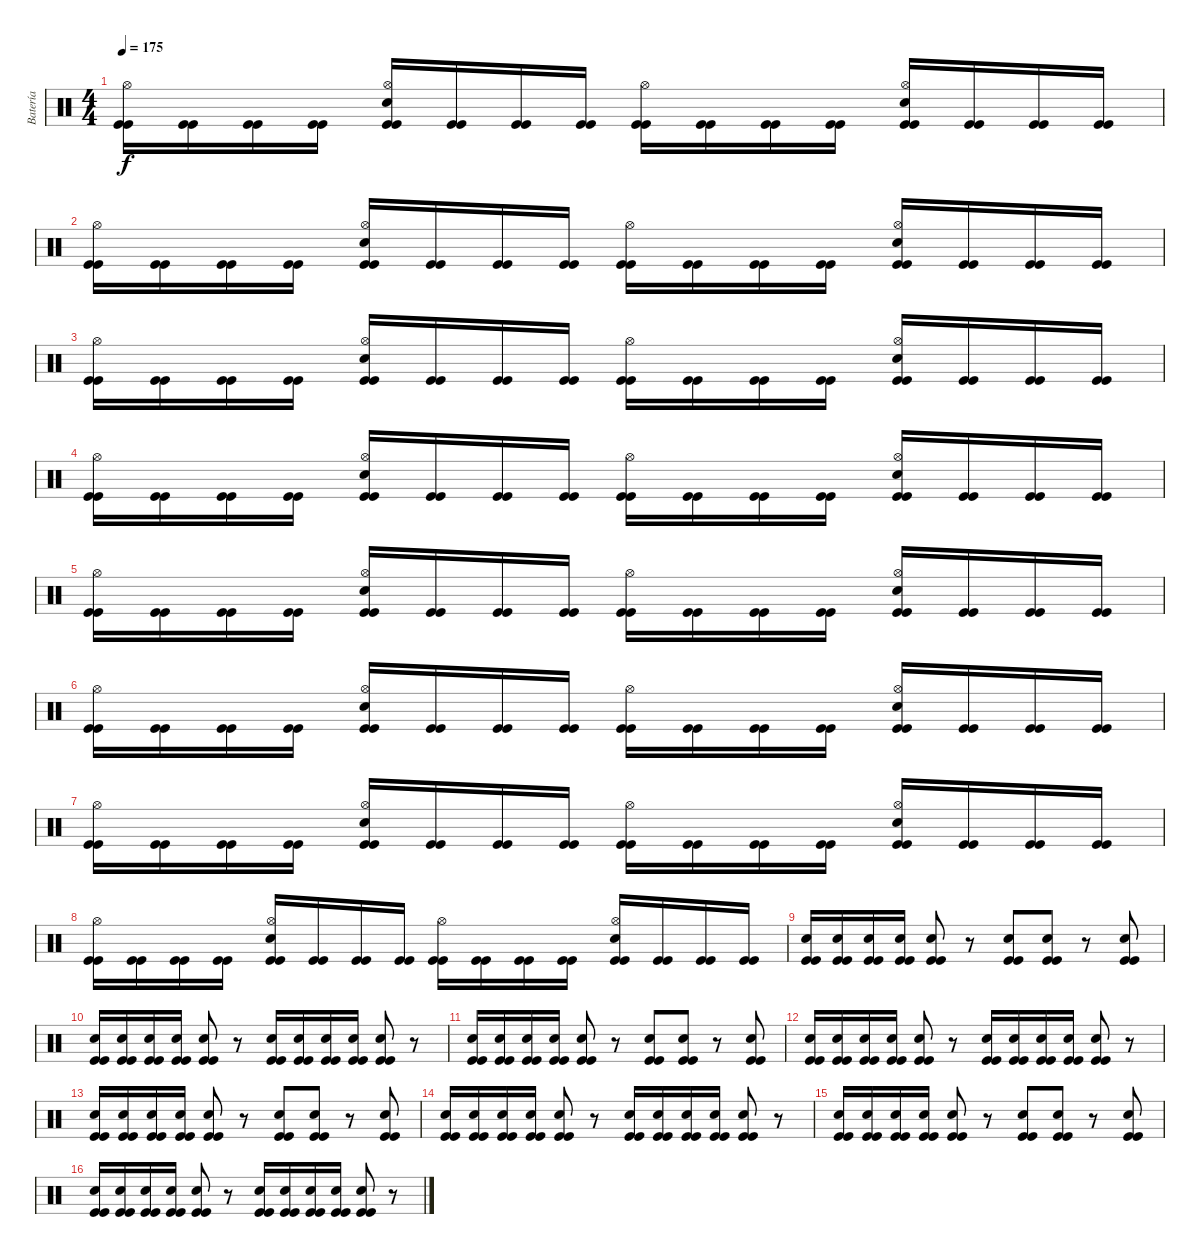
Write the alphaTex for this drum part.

\track ("Batería" "Batería") {instrument percussion}
\staff {score}
\articulation defaults
\ts (4 4)
\tempo 175
\clef neutral
\ks c
("Kick (hit)" "Kick (hit)" "Hi-Hat (open)").16{dy f} ("Kick (hit)" "Kick (hit)").16 ("Kick (hit)" "Kick (hit)").16 ("Kick (hit)" "Kick (hit)").16 ("Kick (hit)" "Kick (hit)" "Snare (hit) 2" "Hi-Hat (open)").16 ("Kick (hit)" "Kick (hit)").16 ("Kick (hit)" "Kick (hit)").16 ("Kick (hit)" "Kick (hit)").16 ("Kick (hit)" "Kick (hit)" "Hi-Hat (open)").16 ("Kick (hit)" "Kick (hit)").16 ("Kick (hit)" "Kick (hit)").16 ("Kick (hit)" "Kick (hit)").16 ("Kick (hit)" "Kick (hit)" "Snare (hit) 2" "Hi-Hat (open)").16 ("Kick (hit)" "Kick (hit)").16 ("Kick (hit)" "Kick (hit)").16 ("Kick (hit)" "Kick (hit)").16 |
("Kick (hit)" "Kick (hit)" "Hi-Hat (open)").16 ("Kick (hit)" "Kick (hit)").16 ("Kick (hit)" "Kick (hit)").16 ("Kick (hit)" "Kick (hit)").16 ("Kick (hit)" "Kick (hit)" "Snare (hit) 2" "Hi-Hat (open)").16 ("Kick (hit)" "Kick (hit)").16 ("Kick (hit)" "Kick (hit)").16 ("Kick (hit)" "Kick (hit)").16 ("Kick (hit)" "Kick (hit)" "Hi-Hat (open)").16 ("Kick (hit)" "Kick (hit)").16 ("Kick (hit)" "Kick (hit)").16 ("Kick (hit)" "Kick (hit)").16 ("Kick (hit)" "Kick (hit)" "Snare (hit) 2" "Hi-Hat (open)").16 ("Kick (hit)" "Kick (hit)").16 ("Kick (hit)" "Kick (hit)").16 ("Kick (hit)" "Kick (hit)").16 |
("Kick (hit)" "Kick (hit)" "Hi-Hat (open)").16 ("Kick (hit)" "Kick (hit)").16 ("Kick (hit)" "Kick (hit)").16 ("Kick (hit)" "Kick (hit)").16 ("Kick (hit)" "Kick (hit)" "Snare (hit) 2" "Hi-Hat (open)").16 ("Kick (hit)" "Kick (hit)").16 ("Kick (hit)" "Kick (hit)").16 ("Kick (hit)" "Kick (hit)").16 ("Kick (hit)" "Kick (hit)" "Hi-Hat (open)").16 ("Kick (hit)" "Kick (hit)").16 ("Kick (hit)" "Kick (hit)").16 ("Kick (hit)" "Kick (hit)").16 ("Kick (hit)" "Kick (hit)" "Snare (hit) 2" "Hi-Hat (open)").16 ("Kick (hit)" "Kick (hit)").16 ("Kick (hit)" "Kick (hit)").16 ("Kick (hit)" "Kick (hit)").16 |
("Kick (hit)" "Kick (hit)" "Hi-Hat (open)").16 ("Kick (hit)" "Kick (hit)").16 ("Kick (hit)" "Kick (hit)").16 ("Kick (hit)" "Kick (hit)").16 ("Kick (hit)" "Kick (hit)" "Snare (hit) 2" "Hi-Hat (open)").16 ("Kick (hit)" "Kick (hit)").16 ("Kick (hit)" "Kick (hit)").16 ("Kick (hit)" "Kick (hit)").16 ("Kick (hit)" "Kick (hit)" "Hi-Hat (open)").16 ("Kick (hit)" "Kick (hit)").16 ("Kick (hit)" "Kick (hit)").16 ("Kick (hit)" "Kick (hit)").16 ("Kick (hit)" "Kick (hit)" "Snare (hit) 2" "Hi-Hat (open)").16 ("Kick (hit)" "Kick (hit)").16 ("Kick (hit)" "Kick (hit)").16 ("Kick (hit)" "Kick (hit)").16 |
("Kick (hit)" "Kick (hit)" "Hi-Hat (open)").16 ("Kick (hit)" "Kick (hit)").16 ("Kick (hit)" "Kick (hit)").16 ("Kick (hit)" "Kick (hit)").16 ("Kick (hit)" "Kick (hit)" "Snare (hit) 2" "Hi-Hat (open)").16 ("Kick (hit)" "Kick (hit)").16 ("Kick (hit)" "Kick (hit)").16 ("Kick (hit)" "Kick (hit)").16 ("Kick (hit)" "Kick (hit)" "Hi-Hat (open)").16 ("Kick (hit)" "Kick (hit)").16 ("Kick (hit)" "Kick (hit)").16 ("Kick (hit)" "Kick (hit)").16 ("Kick (hit)" "Kick (hit)" "Snare (hit) 2" "Hi-Hat (open)").16 ("Kick (hit)" "Kick (hit)").16 ("Kick (hit)" "Kick (hit)").16 ("Kick (hit)" "Kick (hit)").16 |
("Kick (hit)" "Kick (hit)" "Hi-Hat (open)").16 ("Kick (hit)" "Kick (hit)").16 ("Kick (hit)" "Kick (hit)").16 ("Kick (hit)" "Kick (hit)").16 ("Kick (hit)" "Kick (hit)" "Snare (hit) 2" "Hi-Hat (open)").16 ("Kick (hit)" "Kick (hit)").16 ("Kick (hit)" "Kick (hit)").16 ("Kick (hit)" "Kick (hit)").16 ("Kick (hit)" "Kick (hit)" "Hi-Hat (open)").16 ("Kick (hit)" "Kick (hit)").16 ("Kick (hit)" "Kick (hit)").16 ("Kick (hit)" "Kick (hit)").16 ("Kick (hit)" "Kick (hit)" "Snare (hit) 2" "Hi-Hat (open)").16 ("Kick (hit)" "Kick (hit)").16 ("Kick (hit)" "Kick (hit)").16 ("Kick (hit)" "Kick (hit)").16 |
("Kick (hit)" "Kick (hit)" "Hi-Hat (open)").16 ("Kick (hit)" "Kick (hit)").16 ("Kick (hit)" "Kick (hit)").16 ("Kick (hit)" "Kick (hit)").16 ("Kick (hit)" "Kick (hit)" "Snare (hit) 2" "Hi-Hat (open)").16 ("Kick (hit)" "Kick (hit)").16 ("Kick (hit)" "Kick (hit)").16 ("Kick (hit)" "Kick (hit)").16 ("Kick (hit)" "Kick (hit)" "Hi-Hat (open)").16 ("Kick (hit)" "Kick (hit)").16 ("Kick (hit)" "Kick (hit)").16 ("Kick (hit)" "Kick (hit)").16 ("Kick (hit)" "Kick (hit)" "Snare (hit) 2" "Hi-Hat (open)").16 ("Kick (hit)" "Kick (hit)").16 ("Kick (hit)" "Kick (hit)").16 ("Kick (hit)" "Kick (hit)").16 |
("Kick (hit)" "Kick (hit)" "Hi-Hat (open)").16 ("Kick (hit)" "Kick (hit)").16 ("Kick (hit)" "Kick (hit)").16 ("Kick (hit)" "Kick (hit)").16 ("Kick (hit)" "Kick (hit)" "Snare (hit) 2" "Hi-Hat (open)").16 ("Kick (hit)" "Kick (hit)").16 ("Kick (hit)" "Kick (hit)").16 ("Kick (hit)" "Kick (hit)").16 ("Kick (hit)" "Kick (hit)" "Hi-Hat (open)").16 ("Kick (hit)" "Kick (hit)").16 ("Kick (hit)" "Kick (hit)").16 ("Kick (hit)" "Kick (hit)").16 ("Kick (hit)" "Kick (hit)" "Snare (hit) 2" "Hi-Hat (open)").16 ("Kick (hit)" "Kick (hit)").16 ("Kick (hit)" "Kick (hit)").16 ("Kick (hit)" "Kick (hit)").16 |
("Kick (hit)" "Kick (hit)" "Snare (hit) 2").16 ("Kick (hit)" "Kick (hit)" "Snare (hit) 2").16 ("Kick (hit)" "Kick (hit)" "Snare (hit) 2").16 ("Kick (hit)" "Kick (hit)" "Snare (hit) 2").16 ("Kick (hit)" "Kick (hit)" "Snare (hit) 2").8 r.8 ("Kick (hit)" "Kick (hit)" "Snare (hit) 2").8 ("Kick (hit)" "Kick (hit)" "Snare (hit) 2").8 r.8 ("Kick (hit)" "Kick (hit)" "Snare (hit) 2").8 |
("Kick (hit)" "Kick (hit)" "Snare (hit) 2").16 ("Kick (hit)" "Kick (hit)" "Snare (hit) 2").16 ("Kick (hit)" "Kick (hit)" "Snare (hit) 2").16 ("Kick (hit)" "Kick (hit)" "Snare (hit) 2").16 ("Kick (hit)" "Kick (hit)" "Snare (hit) 2").8 r.8 ("Kick (hit)" "Kick (hit)" "Snare (hit) 2").16 ("Kick (hit)" "Kick (hit)" "Snare (hit) 2").16 ("Kick (hit)" "Kick (hit)" "Snare (hit) 2").16 ("Kick (hit)" "Kick (hit)" "Snare (hit) 2").16 ("Kick (hit)" "Kick (hit)" "Snare (hit) 2").8 r.8 |
("Kick (hit)" "Kick (hit)" "Snare (hit) 2").16 ("Kick (hit)" "Kick (hit)" "Snare (hit) 2").16 ("Kick (hit)" "Kick (hit)" "Snare (hit) 2").16 ("Kick (hit)" "Kick (hit)" "Snare (hit) 2").16 ("Kick (hit)" "Kick (hit)" "Snare (hit) 2").8 r.8 ("Kick (hit)" "Kick (hit)" "Snare (hit) 2").8 ("Kick (hit)" "Kick (hit)" "Snare (hit) 2").8 r.8 ("Kick (hit)" "Kick (hit)" "Snare (hit) 2").8 |
("Kick (hit)" "Kick (hit)" "Snare (hit) 2").16 ("Kick (hit)" "Kick (hit)" "Snare (hit) 2").16 ("Kick (hit)" "Kick (hit)" "Snare (hit) 2").16 ("Kick (hit)" "Kick (hit)" "Snare (hit) 2").16 ("Kick (hit)" "Kick (hit)" "Snare (hit) 2").8 r.8 ("Kick (hit)" "Kick (hit)" "Snare (hit) 2").16 ("Kick (hit)" "Kick (hit)" "Snare (hit) 2").16 ("Kick (hit)" "Kick (hit)" "Snare (hit) 2").16 ("Kick (hit)" "Kick (hit)" "Snare (hit) 2").16 ("Kick (hit)" "Kick (hit)" "Snare (hit) 2").8 r.8 |
("Kick (hit)" "Kick (hit)" "Snare (hit) 2").16 ("Kick (hit)" "Kick (hit)" "Snare (hit) 2").16 ("Kick (hit)" "Kick (hit)" "Snare (hit) 2").16 ("Kick (hit)" "Kick (hit)" "Snare (hit) 2").16 ("Kick (hit)" "Kick (hit)" "Snare (hit) 2").8 r.8 ("Kick (hit)" "Kick (hit)" "Snare (hit) 2").8 ("Kick (hit)" "Kick (hit)" "Snare (hit) 2").8 r.8 ("Kick (hit)" "Kick (hit)" "Snare (hit) 2").8 |
("Kick (hit)" "Kick (hit)" "Snare (hit) 2").16 ("Kick (hit)" "Kick (hit)" "Snare (hit) 2").16 ("Kick (hit)" "Kick (hit)" "Snare (hit) 2").16 ("Kick (hit)" "Kick (hit)" "Snare (hit) 2").16 ("Kick (hit)" "Kick (hit)" "Snare (hit) 2").8 r.8 ("Kick (hit)" "Kick (hit)" "Snare (hit) 2").16 ("Kick (hit)" "Kick (hit)" "Snare (hit) 2").16 ("Kick (hit)" "Kick (hit)" "Snare (hit) 2").16 ("Kick (hit)" "Kick (hit)" "Snare (hit) 2").16 ("Kick (hit)" "Kick (hit)" "Snare (hit) 2").8 r.8 |
("Kick (hit)" "Kick (hit)" "Snare (hit) 2").16 ("Kick (hit)" "Kick (hit)" "Snare (hit) 2").16 ("Kick (hit)" "Kick (hit)" "Snare (hit) 2").16 ("Kick (hit)" "Kick (hit)" "Snare (hit) 2").16 ("Kick (hit)" "Kick (hit)" "Snare (hit) 2").8 r.8 ("Kick (hit)" "Kick (hit)" "Snare (hit) 2").8 ("Kick (hit)" "Kick (hit)" "Snare (hit) 2").8 r.8 ("Kick (hit)" "Kick (hit)" "Snare (hit) 2").8 |
("Kick (hit)" "Kick (hit)" "Snare (hit) 2").16 ("Kick (hit)" "Kick (hit)" "Snare (hit) 2").16 ("Kick (hit)" "Kick (hit)" "Snare (hit) 2").16 ("Kick (hit)" "Kick (hit)" "Snare (hit) 2").16 ("Kick (hit)" "Kick (hit)" "Snare (hit) 2").8 r.8 ("Kick (hit)" "Kick (hit)" "Snare (hit) 2").16 ("Kick (hit)" "Kick (hit)" "Snare (hit) 2").16 ("Kick (hit)" "Kick (hit)" "Snare (hit) 2").16 ("Kick (hit)" "Kick (hit)" "Snare (hit) 2").16 ("Kick (hit)" "Kick (hit)" "Snare (hit) 2").8 r.8
